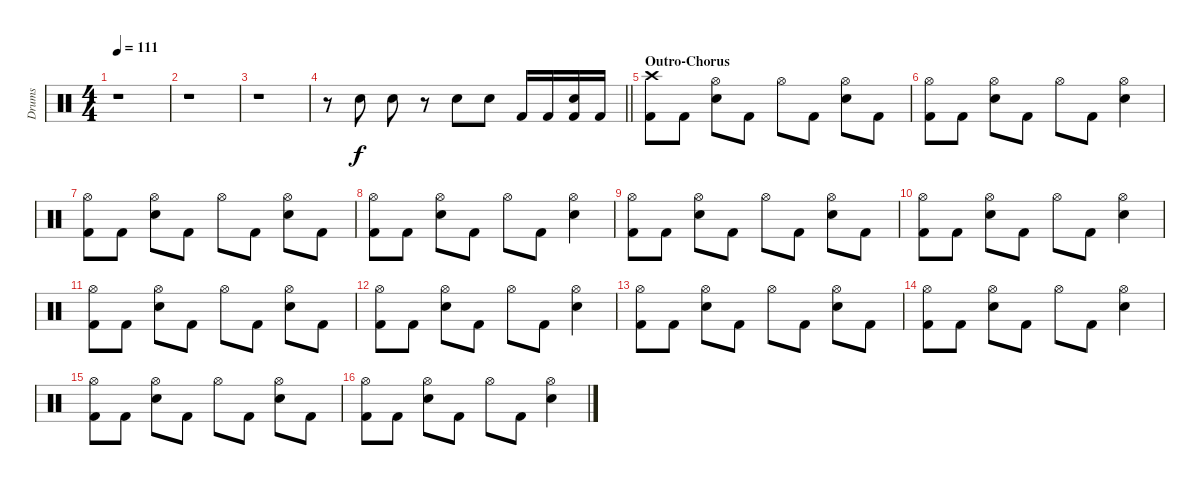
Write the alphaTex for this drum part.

\track ("Drums" "Drums") {instrument percussion}
\staff {score}
\articulation defaults
\ts (4 4)
\tempo 111
\clef neutral
\ks c
r.1{dy f} |
r.1 |
r.1 |
\barLineRight lightlight
r.8 "Snare (hit) 2".8 "Snare (hit) 2".8 r.8 "Snare (hit) 2".8 "Snare (hit) 2".8 "Kick (hit) 2".16 "Kick (hit) 2".16 ("Snare (hit) 2" "Kick (hit) 2").16 "Kick (hit) 2".16 |
\section ("" "Outro-Chorus")
("Crash high (hit)" "Kick (hit) 2").8 "Kick (hit) 2".8 ("Hi-Hat (open)" "Snare (hit) 2").8 "Kick (hit) 2".8 "Hi-Hat (open)".8 "Kick (hit) 2".8 ("Hi-Hat (open)" "Snare (hit) 2").8 "Kick (hit) 2".8 |
("Hi-Hat (open)" "Kick (hit) 2").8 "Kick (hit) 2".8 ("Hi-Hat (open)" "Snare (hit) 2").8 "Kick (hit) 2".8 "Hi-Hat (open)".8 "Kick (hit) 2".8 ("Hi-Hat (open)" "Snare (hit) 2").4 |
("Hi-Hat (open)" "Kick (hit) 2").8 "Kick (hit) 2".8 ("Hi-Hat (open)" "Snare (hit) 2").8 "Kick (hit) 2".8 "Hi-Hat (open)".8 "Kick (hit) 2".8 ("Hi-Hat (open)" "Snare (hit) 2").8 "Kick (hit) 2".8 |
("Hi-Hat (open)" "Kick (hit) 2").8 "Kick (hit) 2".8 ("Hi-Hat (open)" "Snare (hit) 2").8 "Kick (hit) 2".8 "Hi-Hat (open)".8 "Kick (hit) 2".8 ("Hi-Hat (open)" "Snare (hit) 2").4 |
("Hi-Hat (open)" "Kick (hit) 2").8 "Kick (hit) 2".8 ("Hi-Hat (open)" "Snare (hit) 2").8 "Kick (hit) 2".8 "Hi-Hat (open)".8 "Kick (hit) 2".8 ("Hi-Hat (open)" "Snare (hit) 2").8 "Kick (hit) 2".8 |
("Hi-Hat (open)" "Kick (hit) 2").8 "Kick (hit) 2".8 ("Hi-Hat (open)" "Snare (hit) 2").8 "Kick (hit) 2".8 "Hi-Hat (open)".8 "Kick (hit) 2".8 ("Hi-Hat (open)" "Snare (hit) 2").4 |
("Hi-Hat (open)" "Kick (hit) 2").8 "Kick (hit) 2".8 ("Hi-Hat (open)" "Snare (hit) 2").8 "Kick (hit) 2".8 "Hi-Hat (open)".8 "Kick (hit) 2".8 ("Hi-Hat (open)" "Snare (hit) 2").8 "Kick (hit) 2".8 |
("Hi-Hat (open)" "Kick (hit) 2").8 "Kick (hit) 2".8 ("Hi-Hat (open)" "Snare (hit) 2").8 "Kick (hit) 2".8 "Hi-Hat (open)".8 "Kick (hit) 2".8 ("Hi-Hat (open)" "Snare (hit) 2").4 |
("Hi-Hat (open)" "Kick (hit) 2").8 "Kick (hit) 2".8 ("Hi-Hat (open)" "Snare (hit) 2").8 "Kick (hit) 2".8 "Hi-Hat (open)".8 "Kick (hit) 2".8 ("Hi-Hat (open)" "Snare (hit) 2").8 "Kick (hit) 2".8 |
("Hi-Hat (open)" "Kick (hit) 2").8 "Kick (hit) 2".8 ("Hi-Hat (open)" "Snare (hit) 2").8 "Kick (hit) 2".8 "Hi-Hat (open)".8 "Kick (hit) 2".8 ("Hi-Hat (open)" "Snare (hit) 2").4 |
("Hi-Hat (open)" "Kick (hit) 2").8 "Kick (hit) 2".8 ("Hi-Hat (open)" "Snare (hit) 2").8 "Kick (hit) 2".8 "Hi-Hat (open)".8 "Kick (hit) 2".8 ("Hi-Hat (open)" "Snare (hit) 2").8 "Kick (hit) 2".8 |
("Hi-Hat (open)" "Kick (hit) 2").8 "Kick (hit) 2".8 ("Hi-Hat (open)" "Snare (hit) 2").8 "Kick (hit) 2".8 "Hi-Hat (open)".8 "Kick (hit) 2".8 ("Hi-Hat (open)" "Snare (hit) 2").4
